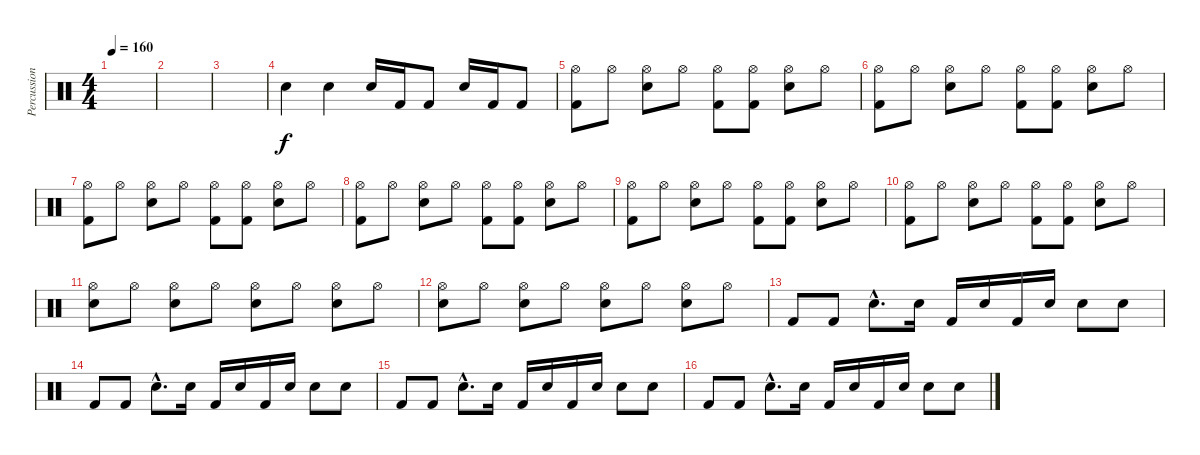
\track ("Percussions" "Percussion") {instrument percussion}
\staff {score}
\articulation defaults
\ts (4 4)
\tempo 160
\clef neutral
\ks c
|
|
|
"Electric Snare (hit)".4 "Electric Snare (hit)".4 "Electric Snare (hit)".16 "Kick (hit) 2".16 "Kick (hit) 2".8 "Electric Snare (hit)".16 "Kick (hit) 2".16 "Kick (hit) 2".8 |
("Hi-Hat (open)" "Kick (hit) 2").8 "Hi-Hat (open)".8 ("Hi-Hat (open)" "Electric Snare (hit)").8 "Hi-Hat (open)".8 ("Hi-Hat (open)" "Kick (hit) 2").8 ("Hi-Hat (open)" "Kick (hit) 2").8 ("Hi-Hat (open)" "Electric Snare (hit)").8 "Hi-Hat (open)".8 |
("Hi-Hat (open)" "Kick (hit) 2").8 "Hi-Hat (open)".8 ("Hi-Hat (open)" "Electric Snare (hit)").8 "Hi-Hat (open)".8 ("Hi-Hat (open)" "Kick (hit) 2").8 ("Hi-Hat (open)" "Kick (hit) 2").8 ("Hi-Hat (open)" "Electric Snare (hit)").8 "Hi-Hat (open)".8 |
("Hi-Hat (open)" "Kick (hit) 2").8 "Hi-Hat (open)".8 ("Hi-Hat (open)" "Electric Snare (hit)").8 "Hi-Hat (open)".8 ("Hi-Hat (open)" "Kick (hit) 2").8 ("Hi-Hat (open)" "Kick (hit) 2").8 ("Hi-Hat (open)" "Electric Snare (hit)").8 "Hi-Hat (open)".8 |
("Hi-Hat (open)" "Kick (hit) 2").8 "Hi-Hat (open)".8 ("Hi-Hat (open)" "Electric Snare (hit)").8 "Hi-Hat (open)".8 ("Hi-Hat (open)" "Kick (hit) 2").8 ("Hi-Hat (open)" "Kick (hit) 2").8 ("Hi-Hat (open)" "Electric Snare (hit)").8 "Hi-Hat (open)".8 |
("Hi-Hat (open)" "Kick (hit) 2").8 "Hi-Hat (open)".8 ("Hi-Hat (open)" "Electric Snare (hit)").8 "Hi-Hat (open)".8 ("Hi-Hat (open)" "Kick (hit) 2").8 ("Hi-Hat (open)" "Kick (hit) 2").8 ("Hi-Hat (open)" "Electric Snare (hit)").8 "Hi-Hat (open)".8 |
("Hi-Hat (open)" "Kick (hit) 2").8 "Hi-Hat (open)".8 ("Hi-Hat (open)" "Electric Snare (hit)").8 "Hi-Hat (open)".8 ("Hi-Hat (open)" "Kick (hit) 2").8 ("Hi-Hat (open)" "Kick (hit) 2").8 ("Hi-Hat (open)" "Electric Snare (hit)").8 "Hi-Hat (open)".8 |
("Hi-Hat (open)" "Electric Snare (hit)").8 "Hi-Hat (open)".8 ("Hi-Hat (open)" "Electric Snare (hit)").8 "Hi-Hat (open)".8 ("Hi-Hat (open)" "Electric Snare (hit)").8 "Hi-Hat (open)".8 ("Hi-Hat (open)" "Electric Snare (hit)").8 "Hi-Hat (open)".8 |
("Hi-Hat (open)" "Electric Snare (hit)").8 "Hi-Hat (open)".8 ("Hi-Hat (open)" "Electric Snare (hit)").8 "Hi-Hat (open)".8 ("Hi-Hat (open)" "Electric Snare (hit)").8 "Hi-Hat (open)".8 ("Hi-Hat (open)" "Electric Snare (hit)").8 "Hi-Hat (open)".8 |
"Kick (hit) 2".8 "Kick (hit) 2".8 "Electric Snare (hit)"{hac}.8{d} "Electric Snare (hit)".16 "Kick (hit) 2".16 "Electric Snare (hit)".16 "Kick (hit) 2".16 "Electric Snare (hit)".16 "Electric Snare (hit)".8 "Electric Snare (hit)".8 |
"Kick (hit) 2".8 "Kick (hit) 2".8 "Electric Snare (hit)"{hac}.8{d} "Electric Snare (hit)".16 "Kick (hit) 2".16 "Electric Snare (hit)".16 "Kick (hit) 2".16 "Electric Snare (hit)".16 "Electric Snare (hit)".8 "Electric Snare (hit)".8 |
"Kick (hit) 2".8 "Kick (hit) 2".8 "Electric Snare (hit)"{hac}.8{d} "Electric Snare (hit)".16 "Kick (hit) 2".16 "Electric Snare (hit)".16 "Kick (hit) 2".16 "Electric Snare (hit)".16 "Electric Snare (hit)".8 "Electric Snare (hit)".8 |
"Kick (hit) 2".8 "Kick (hit) 2".8 "Electric Snare (hit)"{hac}.8{d} "Electric Snare (hit)".16 "Kick (hit) 2".16 "Electric Snare (hit)".16 "Kick (hit) 2".16 "Electric Snare (hit)".16 "Electric Snare (hit)".8 "Electric Snare (hit)".8
